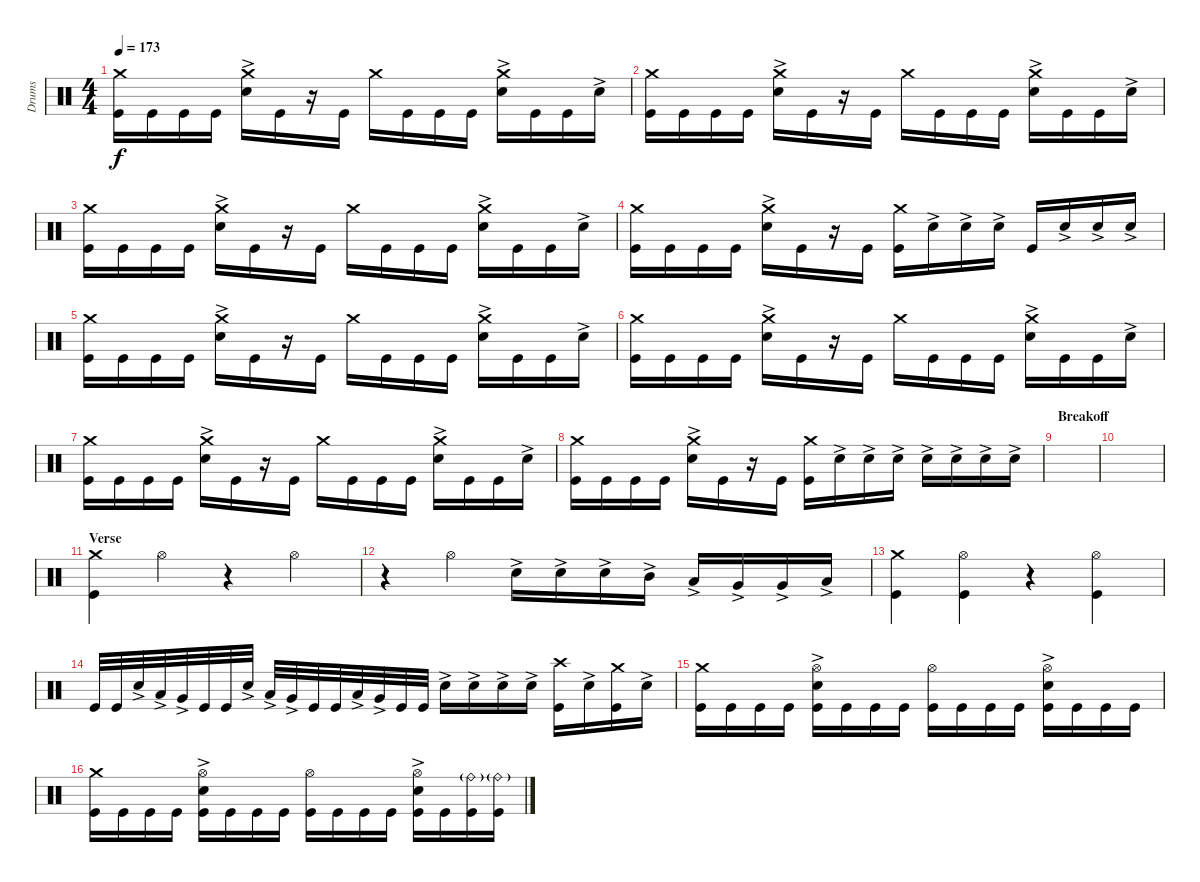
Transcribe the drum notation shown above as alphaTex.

\track ("Drums" "Drums") {instrument percussion}
\staff {score}
\articulation defaults
\ts (4 4)
\tempo 173
\clef neutral
\ks c
("Crash medium (hit)" "Kick (hit)").16{dy f} "Kick (hit)".16 "Kick (hit)".16 "Kick (hit)".16 ("Crash medium (hit)" "Snare (hit) 2"{ac}).16 "Kick (hit)".16 r.16 "Kick (hit)".16 "Crash medium (hit)".16 "Kick (hit)".16 "Kick (hit)".16 "Kick (hit)".16 ("Crash medium (hit)" "Snare (hit) 2"{ac}).16 "Kick (hit)".16 "Kick (hit)".16 "Snare (hit) 2"{ac}.16 |
("Crash medium (hit)" "Kick (hit)").16 "Kick (hit)".16 "Kick (hit)".16 "Kick (hit)".16 ("Crash medium (hit)" "Snare (hit) 2"{ac}).16 "Kick (hit)".16 r.16 "Kick (hit)".16 "Crash medium (hit)".16 "Kick (hit)".16 "Kick (hit)".16 "Kick (hit)".16 ("Crash medium (hit)" "Snare (hit) 2"{ac}).16 "Kick (hit)".16 "Kick (hit)".16 "Snare (hit) 2"{ac}.16 |
("Crash medium (hit)" "Kick (hit)").16 "Kick (hit)".16 "Kick (hit)".16 "Kick (hit)".16 ("Crash medium (hit)" "Snare (hit) 2"{ac}).16 "Kick (hit)".16 r.16 "Kick (hit)".16 "Crash medium (hit)".16 "Kick (hit)".16 "Kick (hit)".16 "Kick (hit)".16 ("Crash medium (hit)" "Snare (hit) 2"{ac}).16 "Kick (hit)".16 "Kick (hit)".16 "Snare (hit) 2"{ac}.16 |
("Crash medium (hit)" "Kick (hit)").16 "Kick (hit)".16 "Kick (hit)".16 "Kick (hit)".16 ("Crash medium (hit)" "Snare (hit) 2"{ac}).16 "Kick (hit)".16 r.16 "Kick (hit)".16 ("Kick (hit)" "Crash medium (hit)").16 "Snare (hit) 2"{ac}.16 "Snare (hit) 2"{ac}.16 "Snare (hit) 2"{ac}.16 "Kick (hit)".16 "Snare (hit) 2"{ac}.16 "Snare (hit) 2"{ac}.16 "Snare (hit) 2"{ac}.16 |
("Crash medium (hit)" "Kick (hit)").16 "Kick (hit)".16 "Kick (hit)".16 "Kick (hit)".16 ("Crash medium (hit)" "Snare (hit) 2"{ac}).16 "Kick (hit)".16 r.16 "Kick (hit)".16 "Crash medium (hit)".16 "Kick (hit)".16 "Kick (hit)".16 "Kick (hit)".16 ("Crash medium (hit)" "Snare (hit) 2"{ac}).16 "Kick (hit)".16 "Kick (hit)".16 "Snare (hit) 2"{ac}.16 |
("Crash medium (hit)" "Kick (hit)").16 "Kick (hit)".16 "Kick (hit)".16 "Kick (hit)".16 ("Crash medium (hit)" "Snare (hit) 2"{ac}).16 "Kick (hit)".16 r.16 "Kick (hit)".16 "Crash medium (hit)".16 "Kick (hit)".16 "Kick (hit)".16 "Kick (hit)".16 ("Crash medium (hit)" "Snare (hit) 2"{ac}).16 "Kick (hit)".16 "Kick (hit)".16 "Snare (hit) 2"{ac}.16 |
("Crash medium (hit)" "Kick (hit)").16 "Kick (hit)".16 "Kick (hit)".16 "Kick (hit)".16 ("Crash medium (hit)" "Snare (hit) 2"{ac}).16 "Kick (hit)".16 r.16 "Kick (hit)".16 "Crash medium (hit)".16 "Kick (hit)".16 "Kick (hit)".16 "Kick (hit)".16 ("Crash medium (hit)" "Snare (hit) 2"{ac}).16 "Kick (hit)".16 "Kick (hit)".16 "Snare (hit) 2"{ac}.16 |
("Crash medium (hit)" "Kick (hit)").16 "Kick (hit)".16 "Kick (hit)".16 "Kick (hit)".16 ("Crash medium (hit)" "Snare (hit) 2"{ac}).16 "Kick (hit)".16 r.16 "Kick (hit)".16 ("Kick (hit)" "Crash medium (hit)").16 "Snare (hit) 2"{ac}.16 "Snare (hit) 2"{ac}.16 "Snare (hit) 2"{ac}.16 "Snare (hit) 2"{ac}.16 "Snare (hit) 2"{ac}.16 "Snare (hit) 2"{ac}.16 "Snare (hit) 2"{ac}.16 |
\section ("" "Breakoff")
|
|
\section ("" "Verse")
("Kick (hit)" "Crash medium (hit)").4 "Hi-Hat (open)".4 r.4 "Hi-Hat (open)".4 |
r.4 "Hi-Hat (open)".4 "Snare (hit) 2"{ac}.16 "Snare (hit) 2"{ac}.16 "Snare (hit) 2"{ac}.16 "Mid Tom (hit)"{ac}.16 "Low Tom (hit)"{ac}.16 "Very Low Tom (hit)"{ac}.16 "Very Low Tom (hit)"{ac}.16 "Low Floor Tom (hit)"{ac}.16 |
("Kick (hit)" "Crash medium (hit)").4 ("Hi-Hat (open)" "Kick (hit)").4 r.4 ("Hi-Hat (open)" "Kick (hit)").4 |
"Kick (hit)".32 "Kick (hit)".32 "Snare (hit) 2"{ac}.32 "Low Tom (hit)"{ac}.32 "Very Low Tom (hit)"{ac}.32 "Kick (hit)".32 "Kick (hit)".32 "Snare (hit) 2"{ac}.32 "Low Tom (hit)"{ac}.32 "Very Low Tom (hit)"{ac}.32 "Kick (hit)".32 "Kick (hit)".32 "Low Tom (hit)"{ac}.32 "Very Low Tom (hit)"{ac}.32 "Kick (hit)".32 "Kick (hit)".32 "Snare (hit) 2"{ac}.16 "Snare (hit) 2"{ac}.16 "Snare (hit) 2"{ac}.16 "Snare (hit) 2"{ac}.16 ("Kick (hit)" "Crash high (hit)").16 "Snare (hit) 2"{ac}.16 ("Kick (hit)" "Crash medium (hit)").16 "Snare (hit) 2"{ac}.16 |
("Kick (hit)" "Crash medium (hit)").16 "Kick (hit)".16 "Kick (hit)".16 "Kick (hit)".16 ("Kick (hit)" "Hi-Hat (open)" "Snare (hit) 2"{ac}).16 "Kick (hit)".16 "Kick (hit)".16 "Kick (hit)".16 ("Kick (hit)" "Hi-Hat (open)").16 "Kick (hit)".16 "Kick (hit)".16 "Kick (hit)".16 ("Kick (hit)" "Hi-Hat (open)" "Snare (hit) 2"{ac}).16 "Kick (hit)".16 "Kick (hit)".16 "Kick (hit)".16 |
("Kick (hit)" "Crash medium (hit)").16 "Kick (hit)".16 "Kick (hit)".16 "Kick (hit)".16 ("Kick (hit)" "Hi-Hat (open)" "Snare (hit) 2"{ac}).16 "Kick (hit)".16 "Kick (hit)".16 "Kick (hit)".16 ("Kick (hit)" "Hi-Hat (open)").16 "Kick (hit)".16 "Kick (hit)".16 "Kick (hit)".16 ("Kick (hit)" "Hi-Hat (open)" "Snare (hit) 2"{ac}).16 "Kick (hit)".16 ("Kick (hit)" "Ride (bell)"{g}).16 ("Kick (hit)" "Ride (bell)"{g}).16
